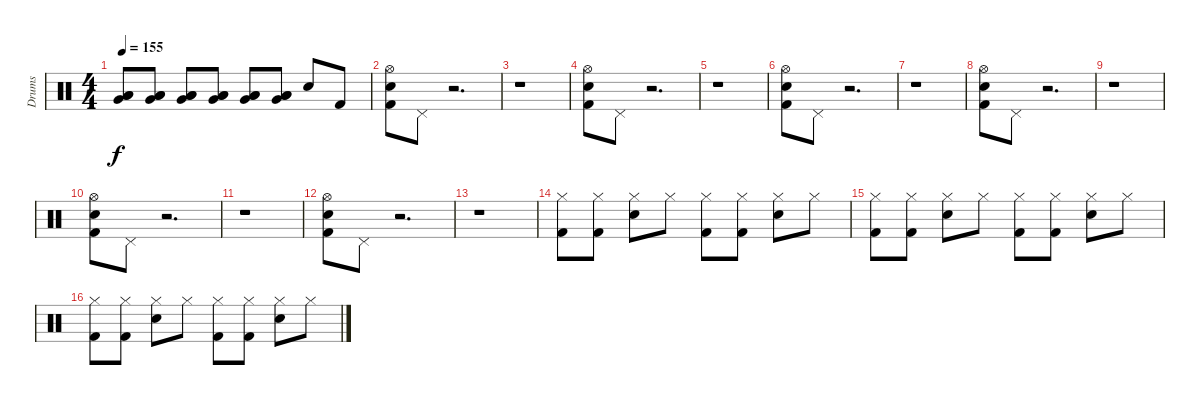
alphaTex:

\track ("Drums" "Drums") {instrument percussion}
\staff {score}
\articulation defaults
\ts (4 4)
\tempo 155
\clef neutral
\ks c
("Low Floor Tom (hit)" "Low Floor Tom (hit)" "Very Low Tom (hit)").8{dy f} ("Low Floor Tom (hit)" "Low Floor Tom (hit)" "Very Low Tom (hit)").8 ("Low Floor Tom (hit)" "Low Floor Tom (hit)" "Very Low Tom (hit)").8 ("Low Floor Tom (hit)" "Low Floor Tom (hit)" "Very Low Tom (hit)").8 ("Low Floor Tom (hit)" "Low Floor Tom (hit)" "Very Low Tom (hit)").8 ("Low Floor Tom (hit)" "Low Floor Tom (hit)" "Very Low Tom (hit)").8 "Snare (hit) 2".8 "Kick (hit) 2".8 |
("Hi-Hat (open)" "Kick (hit) 2" "Snare (hit) 2").8 "Pedal Hi-Hat (hit)".8 r.2{d} |
r.1 |
("Hi-Hat (open)" "Kick (hit) 2" "Snare (hit) 2").8 "Pedal Hi-Hat (hit)".8 r.2{d} |
r.1 |
("Hi-Hat (open)" "Kick (hit) 2" "Snare (hit) 2").8 "Pedal Hi-Hat (hit)".8 r.2{d} |
r.1 |
("Hi-Hat (open)" "Kick (hit) 2" "Snare (hit) 2").8 "Pedal Hi-Hat (hit)".8 r.2{d} |
r.1 |
("Hi-Hat (open)" "Kick (hit) 2" "Snare (hit) 2").8 "Pedal Hi-Hat (hit)".8 r.2{d} |
r.1 |
("Hi-Hat (open)" "Kick (hit) 2" "Snare (hit) 2").8 "Pedal Hi-Hat (hit)".8 r.2{d} |
r.1 |
("Hi-Hat (closed)" "Kick (hit) 2").8 ("Hi-Hat (closed)" "Kick (hit) 2").8 ("Hi-Hat (closed)" "Snare (hit) 2").8 "Hi-Hat (closed)".8 ("Hi-Hat (closed)" "Kick (hit) 2").8 ("Hi-Hat (closed)" "Kick (hit) 2").8 ("Hi-Hat (closed)" "Snare (hit) 2").8 "Hi-Hat (closed)".8 |
("Hi-Hat (closed)" "Kick (hit) 2").8 ("Hi-Hat (closed)" "Kick (hit) 2").8 ("Hi-Hat (closed)" "Snare (hit) 2").8 "Hi-Hat (closed)".8 ("Hi-Hat (closed)" "Kick (hit) 2").8 ("Hi-Hat (closed)" "Kick (hit) 2").8 ("Hi-Hat (closed)" "Snare (hit) 2").8 "Hi-Hat (closed)".8 |
("Hi-Hat (closed)" "Kick (hit) 2").8 ("Hi-Hat (closed)" "Kick (hit) 2").8 ("Hi-Hat (closed)" "Snare (hit) 2").8 "Hi-Hat (closed)".8 ("Hi-Hat (closed)" "Kick (hit) 2").8 ("Hi-Hat (closed)" "Kick (hit) 2").8 ("Hi-Hat (closed)" "Snare (hit) 2").8 "Hi-Hat (closed)".8
